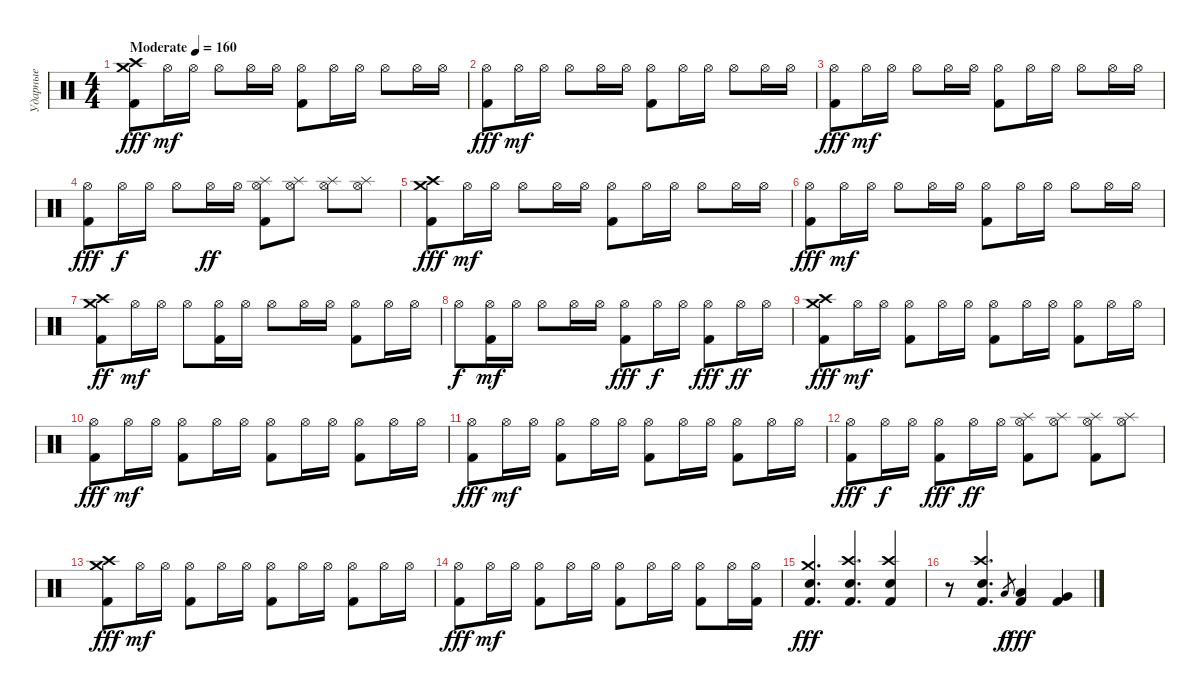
\track ("Ударные" "Ударные") {instrument percussion}
\staff {score}
\articulation defaults
\ts (4 4)
\tempo (160 "Moderate")
\clef neutral
\ks c
("Kick (hit) 2" "Crash high (hit)" "Crash medium (hit)").8{dy fff} "Hi-Hat (open)".16{dy mf} "Hi-Hat (open)".16 "Hi-Hat (open)".8 "Hi-Hat (open)".16 "Hi-Hat (open)".16 ("Kick (hit) 2" "Hi-Hat (open)").8 "Hi-Hat (open)".16 "Hi-Hat (open)".16 "Hi-Hat (open)".8 "Hi-Hat (open)".16 "Hi-Hat (open)".16 |
("Kick (hit) 2" "Hi-Hat (open)").8{dy fff} "Hi-Hat (open)".16{dy mf} "Hi-Hat (open)".16 "Hi-Hat (open)".8 "Hi-Hat (open)".16 "Hi-Hat (open)".16 ("Kick (hit) 2" "Hi-Hat (open)").8 "Hi-Hat (open)".16 "Hi-Hat (open)".16 "Hi-Hat (open)".8 "Hi-Hat (open)".16 "Hi-Hat (open)".16 |
("Kick (hit) 2" "Hi-Hat (open)").8{dy fff} "Hi-Hat (open)".16{dy mf} "Hi-Hat (open)".16 "Hi-Hat (open)".8 "Hi-Hat (open)".16 "Hi-Hat (open)".16 ("Kick (hit) 2" "Hi-Hat (open)").8 "Hi-Hat (open)".16 "Hi-Hat (open)".16 "Hi-Hat (open)".8 "Hi-Hat (open)".16 "Hi-Hat (open)".16 |
("Kick (hit) 2" "Hi-Hat (open)").8{dy fff} "Hi-Hat (open)".16{dy f} "Hi-Hat (open)".16 "Hi-Hat (open)".8 "Hi-Hat (open)".16{dy ff} "Hi-Hat (open)".16 ("Kick (hit) 2" "Hi-Hat (open)" "Splash (hit)").8 ("Hi-Hat (open)" "Splash (hit)").8 ("Hi-Hat (open)" "Splash (hit)").8 ("Hi-Hat (open)" "Splash (hit)").8 |
("Kick (hit) 2" "Crash high (hit)" "Crash medium (hit)").8{dy fff} "Hi-Hat (open)".16{dy mf} "Hi-Hat (open)".16 "Hi-Hat (open)".8 "Hi-Hat (open)".16 "Hi-Hat (open)".16 ("Kick (hit) 2" "Hi-Hat (open)").8 "Hi-Hat (open)".16 "Hi-Hat (open)".16 "Hi-Hat (open)".8 "Hi-Hat (open)".16 "Hi-Hat (open)".16 |
("Kick (hit) 2" "Hi-Hat (open)").8{dy fff} "Hi-Hat (open)".16{dy mf} "Hi-Hat (open)".16 "Hi-Hat (open)".8 "Hi-Hat (open)".16 "Hi-Hat (open)".16 ("Kick (hit) 2" "Hi-Hat (open)").8 "Hi-Hat (open)".16 "Hi-Hat (open)".16 "Hi-Hat (open)".8 "Hi-Hat (open)".16 "Hi-Hat (open)".16 |
("Kick (hit) 2" "Crash high (hit)" "Crash medium (hit)").8{dy ff} "Hi-Hat (open)".16{dy mf} "Hi-Hat (open)".16 "Hi-Hat (open)".8 ("Kick (hit) 2" "Hi-Hat (open)").16 "Hi-Hat (open)".16 "Hi-Hat (open)".8 "Hi-Hat (open)".16 "Hi-Hat (open)".16 ("Kick (hit) 2" "Hi-Hat (open)").8 "Hi-Hat (open)".16 "Hi-Hat (open)".16 |
"Hi-Hat (open)".8{dy f} ("Kick (hit) 2" "Hi-Hat (open)").16{dy mf} "Hi-Hat (open)".16 "Hi-Hat (open)".8 "Hi-Hat (open)".16 "Hi-Hat (open)".16 ("Kick (hit) 2" "Hi-Hat (open)").8{dy fff} "Hi-Hat (open)".16{dy f} "Hi-Hat (open)".16 ("Kick (hit) 2" "Hi-Hat (open)").8{dy fff} "Hi-Hat (open)".16{dy ff} "Hi-Hat (open)".16 |
("Kick (hit) 2" "Crash high (hit)" "Crash medium (hit)").8{dy fff} "Hi-Hat (open)".16{dy mf} "Hi-Hat (open)".16 ("Kick (hit) 2" "Hi-Hat (open)").8 "Hi-Hat (open)".16 "Hi-Hat (open)".16 ("Kick (hit) 2" "Hi-Hat (open)").8 "Hi-Hat (open)".16 "Hi-Hat (open)".16 ("Kick (hit) 2" "Hi-Hat (open)").8 "Hi-Hat (open)".16 "Hi-Hat (open)".16 |
("Kick (hit) 2" "Hi-Hat (open)").8{dy fff} "Hi-Hat (open)".16{dy mf} "Hi-Hat (open)".16 ("Kick (hit) 2" "Hi-Hat (open)").8 "Hi-Hat (open)".16 "Hi-Hat (open)".16 ("Kick (hit) 2" "Hi-Hat (open)").8 "Hi-Hat (open)".16 "Hi-Hat (open)".16 ("Kick (hit) 2" "Hi-Hat (open)").8 "Hi-Hat (open)".16 "Hi-Hat (open)".16 |
("Kick (hit) 2" "Hi-Hat (open)").8{dy fff} "Hi-Hat (open)".16{dy mf} "Hi-Hat (open)".16 ("Kick (hit) 2" "Hi-Hat (open)").8 "Hi-Hat (open)".16 "Hi-Hat (open)".16 ("Kick (hit) 2" "Hi-Hat (open)").8 "Hi-Hat (open)".16 "Hi-Hat (open)".16 ("Kick (hit) 2" "Hi-Hat (open)").8 "Hi-Hat (open)".16 "Hi-Hat (open)".16 |
("Kick (hit) 2" "Hi-Hat (open)").8{dy fff} "Hi-Hat (open)".16{dy f} "Hi-Hat (open)".16 ("Kick (hit) 2" "Hi-Hat (open)").8{dy fff} "Hi-Hat (open)".16{dy ff} "Hi-Hat (open)".16 ("Kick (hit) 2" "Hi-Hat (open)" "Splash (hit)").8 ("Hi-Hat (open)" "Splash (hit)").8 ("Kick (hit) 2" "Hi-Hat (open)" "Splash (hit)").8 ("Hi-Hat (open)" "Splash (hit)").8 |
("Kick (hit) 2" "Crash high (hit)" "Crash medium (hit)").8{dy fff} "Hi-Hat (open)".16{dy mf} "Hi-Hat (open)".16 ("Kick (hit) 2" "Hi-Hat (open)").8 "Hi-Hat (open)".16 "Hi-Hat (open)".16 ("Kick (hit) 2" "Hi-Hat (open)").8 "Hi-Hat (open)".16 "Hi-Hat (open)".16 ("Kick (hit) 2" "Hi-Hat (open)").8 "Hi-Hat (open)".16 "Hi-Hat (open)".16 |
("Kick (hit) 2" "Hi-Hat (open)").8{dy fff} "Hi-Hat (open)".16{dy mf} "Hi-Hat (open)".16 ("Kick (hit) 2" "Hi-Hat (open)").8 "Hi-Hat (open)".16 "Hi-Hat (open)".16 ("Kick (hit) 2" "Hi-Hat (open)").8 "Hi-Hat (open)".16 "Hi-Hat (open)".16 ("Kick (hit) 2" "Hi-Hat (open)").8 "Hi-Hat (open)".16 ("Kick (hit) 2" "Hi-Hat (open)").16 |
("Kick (hit) 2" "Electric Snare (hit)" "Crash medium (hit)").4{d dy fff} ("Kick (hit) 2" "Electric Snare (hit)" "Crash high (hit)").4{d} ("Kick (hit) 2" "Electric Snare (hit)" "Crash high (hit)").4 |
r.8 ("Kick (hit) 2" "Electric Snare (hit)" "Crash high (hit)").4{d} "Low Tom (hit)".8{gr dy f} ("Kick (hit) 2" "Low Tom (hit)").4{dy fff} ("Kick (hit) 2" "Very Low Tom (hit)").4
